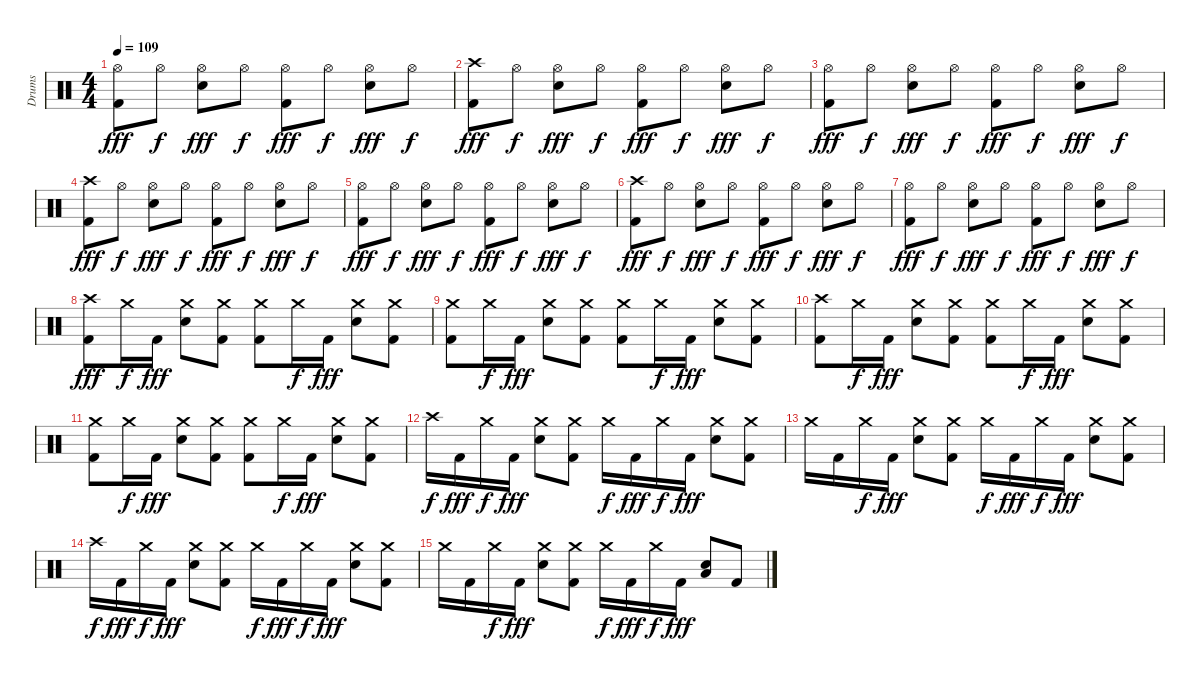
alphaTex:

\track ("Drums" "Drums") {instrument percussion}
\staff {score}
\articulation defaults
\ts (4 4)
\tempo 109
\clef neutral
\ks c
("Hi-Hat (open)" "Kick (hit) 2").8{dy fff} "Hi-Hat (open)".8{dy f} ("Hi-Hat (open)" "Electric Snare (hit)").8{dy fff} "Hi-Hat (open)".8{dy f} ("Hi-Hat (open)" "Kick (hit) 2").8{dy fff} "Hi-Hat (open)".8{dy f} ("Hi-Hat (open)" "Electric Snare (hit)").8{dy fff} "Hi-Hat (open)".8{dy f} |
("Crash high (hit)" "Kick (hit) 2").8{dy fff} "Hi-Hat (open)".8{dy f} ("Hi-Hat (open)" "Electric Snare (hit)").8{dy fff} "Hi-Hat (open)".8{dy f} ("Hi-Hat (open)" "Kick (hit) 2").8{dy fff} "Hi-Hat (open)".8{dy f} ("Hi-Hat (open)" "Electric Snare (hit)").8{dy fff} "Hi-Hat (open)".8{dy f} |
("Hi-Hat (open)" "Kick (hit) 2").8{dy fff} "Hi-Hat (open)".8{dy f} ("Hi-Hat (open)" "Electric Snare (hit)").8{dy fff} "Hi-Hat (open)".8{dy f} ("Hi-Hat (open)" "Kick (hit) 2").8{dy fff} "Hi-Hat (open)".8{dy f} ("Hi-Hat (open)" "Electric Snare (hit)").8{dy fff} "Hi-Hat (open)".8{dy f} |
("Crash high (hit)" "Kick (hit) 2").8{dy fff} "Hi-Hat (open)".8{dy f} ("Hi-Hat (open)" "Electric Snare (hit)").8{dy fff} "Hi-Hat (open)".8{dy f} ("Hi-Hat (open)" "Kick (hit) 2").8{dy fff} "Hi-Hat (open)".8{dy f} ("Hi-Hat (open)" "Electric Snare (hit)").8{dy fff} "Hi-Hat (open)".8{dy f} |
("Hi-Hat (open)" "Kick (hit) 2").8{dy fff} "Hi-Hat (open)".8{dy f} ("Hi-Hat (open)" "Electric Snare (hit)").8{dy fff} "Hi-Hat (open)".8{dy f} ("Hi-Hat (open)" "Kick (hit) 2").8{dy fff} "Hi-Hat (open)".8{dy f} ("Hi-Hat (open)" "Electric Snare (hit)").8{dy fff} "Hi-Hat (open)".8{dy f} |
("Crash high (hit)" "Kick (hit) 2").8{dy fff} "Hi-Hat (open)".8{dy f} ("Hi-Hat (open)" "Electric Snare (hit)").8{dy fff} "Hi-Hat (open)".8{dy f} ("Hi-Hat (open)" "Kick (hit) 2").8{dy fff} "Hi-Hat (open)".8{dy f} ("Hi-Hat (open)" "Electric Snare (hit)").8{dy fff} "Hi-Hat (open)".8{dy f} |
("Hi-Hat (open)" "Kick (hit) 2").8{dy fff} "Hi-Hat (open)".8{dy f} ("Hi-Hat (open)" "Electric Snare (hit)").8{dy fff} "Hi-Hat (open)".8{dy f} ("Hi-Hat (open)" "Kick (hit) 2").8{dy fff} "Hi-Hat (open)".8{dy f} ("Hi-Hat (open)" "Electric Snare (hit)").8{dy fff} "Hi-Hat (open)".8{dy f} |
("Crash high (hit)" "Kick (hit) 2").8{dy fff} "Crash medium (hit)".16{dy f} "Kick (hit) 2".16{dy fff} ("Crash medium (hit)" "Electric Snare (hit)").8 ("Crash medium (hit)" "Kick (hit) 2").8 ("Crash medium (hit)" "Kick (hit) 2").8 "Crash medium (hit)".16{dy f} "Kick (hit) 2".16{dy fff} ("Crash medium (hit)" "Electric Snare (hit)").8 ("Crash medium (hit)" "Kick (hit) 2").8 |
("Crash medium (hit)" "Kick (hit) 2").8 "Crash medium (hit)".16{dy f} "Kick (hit) 2".16{dy fff} ("Crash medium (hit)" "Electric Snare (hit)").8 ("Crash medium (hit)" "Kick (hit) 2").8 ("Crash medium (hit)" "Kick (hit) 2").8 "Crash medium (hit)".16{dy f} "Kick (hit) 2".16{dy fff} ("Crash medium (hit)" "Electric Snare (hit)").8 ("Crash medium (hit)" "Kick (hit) 2").8 |
("Crash high (hit)" "Kick (hit) 2").8 "Crash medium (hit)".16{dy f} "Kick (hit) 2".16{dy fff} ("Crash medium (hit)" "Electric Snare (hit)").8 ("Crash medium (hit)" "Kick (hit) 2").8 ("Crash medium (hit)" "Kick (hit) 2").8 "Crash medium (hit)".16{dy f} "Kick (hit) 2".16{dy fff} ("Crash medium (hit)" "Electric Snare (hit)").8 ("Crash medium (hit)" "Kick (hit) 2").8 |
("Crash medium (hit)" "Kick (hit) 2").8 "Crash medium (hit)".16{dy f} "Kick (hit) 2".16{dy fff} ("Crash medium (hit)" "Electric Snare (hit)").8 ("Crash medium (hit)" "Kick (hit) 2").8 ("Crash medium (hit)" "Kick (hit) 2").8 "Crash medium (hit)".16{dy f} "Kick (hit) 2".16{dy fff} ("Crash medium (hit)" "Electric Snare (hit)").8 ("Crash medium (hit)" "Kick (hit) 2").8 |
"Crash high (hit)".16{dy f} "Kick (hit) 2".16{dy fff} "Crash medium (hit)".16{dy f} "Kick (hit) 2".16{dy fff} ("Crash medium (hit)" "Electric Snare (hit)").8 ("Crash medium (hit)" "Kick (hit) 2").8 "Crash medium (hit)".16{dy f} "Kick (hit) 2".16{dy fff} "Crash medium (hit)".16{dy f} "Kick (hit) 2".16{dy fff} ("Crash medium (hit)" "Electric Snare (hit)").8 ("Crash medium (hit)" "Kick (hit) 2").8 |
"Crash medium (hit)".16 "Kick (hit) 2".16 "Crash medium (hit)".16{dy f} "Kick (hit) 2".16{dy fff} ("Crash medium (hit)" "Electric Snare (hit)").8 ("Crash medium (hit)" "Kick (hit) 2").8 "Crash medium (hit)".16{dy f} "Kick (hit) 2".16{dy fff} "Crash medium (hit)".16{dy f} "Kick (hit) 2".16{dy fff} ("Crash medium (hit)" "Electric Snare (hit)").8 ("Crash medium (hit)" "Kick (hit) 2").8 |
"Crash high (hit)".16{dy f} "Kick (hit) 2".16{dy fff} "Crash medium (hit)".16{dy f} "Kick (hit) 2".16{dy fff} ("Crash medium (hit)" "Electric Snare (hit)").8 ("Crash medium (hit)" "Kick (hit) 2").8 "Crash medium (hit)".16{dy f} "Kick (hit) 2".16{dy fff} "Crash medium (hit)".16{dy f} "Kick (hit) 2".16{dy fff} ("Crash medium (hit)" "Electric Snare (hit)").8 ("Crash medium (hit)" "Kick (hit) 2").8 |
"Crash medium (hit)".16 "Kick (hit) 2".16 "Crash medium (hit)".16{dy f} "Kick (hit) 2".16{dy fff} ("Crash medium (hit)" "Electric Snare (hit)").8 ("Crash medium (hit)" "Kick (hit) 2").8 "Crash medium (hit)".16{dy f} "Kick (hit) 2".16{dy fff} "Crash medium (hit)".16{dy f} "Kick (hit) 2".16{dy fff} ("Low Floor Tom (hit)" "Electric Snare (hit)").8 "Kick (hit) 2".8
